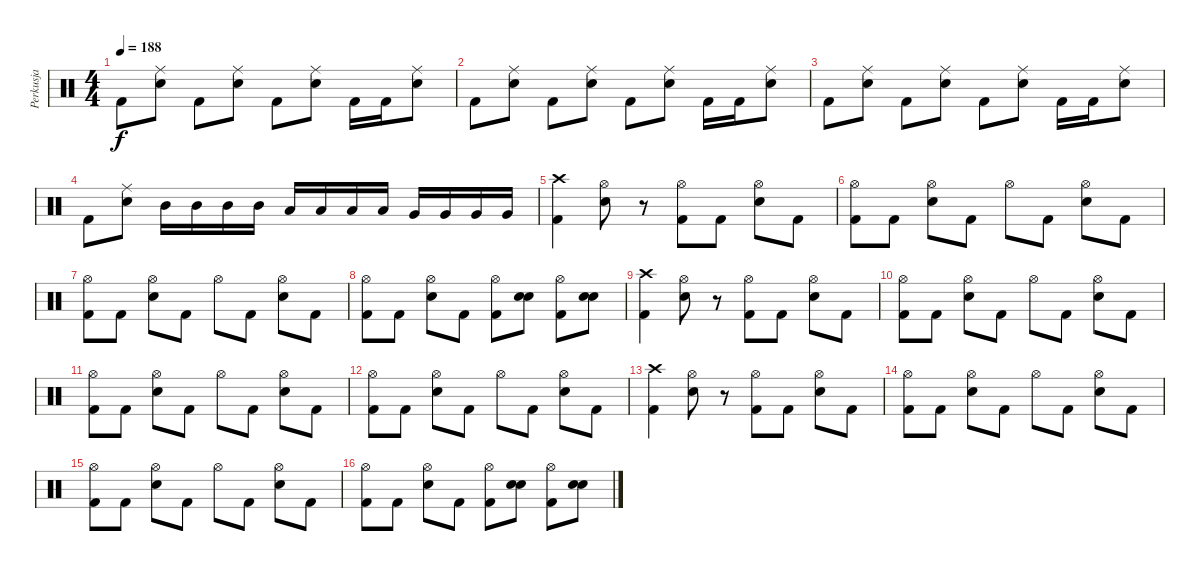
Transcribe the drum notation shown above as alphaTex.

\track ("Perkusja" "Perkusja") {instrument percussion}
\staff {score}
\articulation defaults
\ts (4 4)
\tempo 188
\clef neutral
\ks c "Kick (hit) 2".8{dy f}
("Ride (middle)" "Electric Snare (hit)").8 "Kick (hit) 2".8 ("Ride (middle)" "Electric Snare (hit)").8 "Kick (hit) 2".8 ("Ride (middle)" "Electric Snare (hit)").8 "Kick (hit) 2".16 "Kick (hit) 2".16 ("Ride (middle)" "Electric Snare (hit)").8 |
"Kick (hit) 2".8 ("Ride (middle)" "Electric Snare (hit)").8 "Kick (hit) 2".8 ("Ride (middle)" "Electric Snare (hit)").8 "Kick (hit) 2".8 ("Ride (middle)" "Electric Snare (hit)").8 "Kick (hit) 2".16 "Kick (hit) 2".16 ("Ride (middle)" "Electric Snare (hit)").8 |
"Kick (hit) 2".8 ("Ride (middle)" "Electric Snare (hit)").8 "Kick (hit) 2".8 ("Ride (middle)" "Electric Snare (hit)").8 "Kick (hit) 2".8 ("Ride (middle)" "Electric Snare (hit)").8 "Kick (hit) 2".16 "Kick (hit) 2".16 ("Ride (middle)" "Electric Snare (hit)").8 |
"Kick (hit) 2".8 ("Ride (middle)" "Electric Snare (hit)").8 "Mid Tom (hit)".16 "Mid Tom (hit)".16 "Mid Tom (hit)".16 "Mid Tom (hit)".16 "Low Tom (hit)".16 "Low Tom (hit)".16 "Low Tom (hit)".16 "Low Tom (hit)".16 "Very Low Tom (hit)".16 "Very Low Tom (hit)".16 "Very Low Tom (hit)".16 "Very Low Tom (hit)".16 |
("Crash high (hit)" "Kick (hit) 2").4 ("Hi-Hat (open)" "Electric Snare (hit)").8 r.8 ("Hi-Hat (open)" "Kick (hit) 2").8 "Kick (hit) 2".8 ("Hi-Hat (open)" "Electric Snare (hit)").8 "Kick (hit) 2".8 |
("Hi-Hat (open)" "Kick (hit) 2").8 "Kick (hit) 2".8 ("Hi-Hat (open)" "Electric Snare (hit)").8 "Kick (hit) 2".8 "Hi-Hat (open)".8 "Kick (hit) 2".8 ("Hi-Hat (open)" "Electric Snare (hit)").8 "Kick (hit) 2".8 |
("Hi-Hat (open)" "Kick (hit) 2").8 "Kick (hit) 2".8 ("Hi-Hat (open)" "Electric Snare (hit)").8 "Kick (hit) 2".8 "Hi-Hat (open)".8 "Kick (hit) 2".8 ("Hi-Hat (open)" "Electric Snare (hit)").8 "Kick (hit) 2".8 |
("Hi-Hat (open)" "Kick (hit) 2").8 "Kick (hit) 2".8 ("Hi-Hat (open)" "Electric Snare (hit)").8 "Kick (hit) 2".8 ("Hi-Hat (open)" "Kick (hit) 2").8 ("Electric Snare (hit)" "Electric Snare (hit)").8 ("Hi-Hat (open)" "Kick (hit) 2").8 ("Electric Snare (hit)" "Electric Snare (hit)").8 |
("Crash high (hit)" "Kick (hit) 2").4 ("Hi-Hat (open)" "Electric Snare (hit)").8 r.8 ("Hi-Hat (open)" "Kick (hit) 2").8 "Kick (hit) 2".8 ("Hi-Hat (open)" "Electric Snare (hit)").8 "Kick (hit) 2".8 |
("Hi-Hat (open)" "Kick (hit) 2").8 "Kick (hit) 2".8 ("Hi-Hat (open)" "Electric Snare (hit)").8 "Kick (hit) 2".8 "Hi-Hat (open)".8 "Kick (hit) 2".8 ("Hi-Hat (open)" "Electric Snare (hit)").8 "Kick (hit) 2".8 |
("Hi-Hat (open)" "Kick (hit) 2").8 "Kick (hit) 2".8 ("Hi-Hat (open)" "Electric Snare (hit)").8 "Kick (hit) 2".8 "Hi-Hat (open)".8 "Kick (hit) 2".8 ("Hi-Hat (open)" "Electric Snare (hit)").8 "Kick (hit) 2".8 |
("Hi-Hat (open)" "Kick (hit) 2").8 "Kick (hit) 2".8 ("Hi-Hat (open)" "Electric Snare (hit)").8 "Kick (hit) 2".8 "Hi-Hat (open)".8 "Kick (hit) 2".8 ("Hi-Hat (open)" "Electric Snare (hit)").8 "Kick (hit) 2".8 |
("Crash high (hit)" "Kick (hit) 2").4 ("Hi-Hat (open)" "Electric Snare (hit)").8 r.8 ("Hi-Hat (open)" "Kick (hit) 2").8 "Kick (hit) 2".8 ("Hi-Hat (open)" "Electric Snare (hit)").8 "Kick (hit) 2".8 |
("Hi-Hat (open)" "Kick (hit) 2").8 "Kick (hit) 2".8 ("Hi-Hat (open)" "Electric Snare (hit)").8 "Kick (hit) 2".8 "Hi-Hat (open)".8 "Kick (hit) 2".8 ("Hi-Hat (open)" "Electric Snare (hit)").8 "Kick (hit) 2".8 |
("Hi-Hat (open)" "Kick (hit) 2").8 "Kick (hit) 2".8 ("Hi-Hat (open)" "Electric Snare (hit)").8 "Kick (hit) 2".8 "Hi-Hat (open)".8 "Kick (hit) 2".8 ("Hi-Hat (open)" "Electric Snare (hit)").8 "Kick (hit) 2".8 |
("Hi-Hat (open)" "Kick (hit) 2").8 "Kick (hit) 2".8 ("Hi-Hat (open)" "Electric Snare (hit)").8 "Kick (hit) 2".8 ("Hi-Hat (open)" "Kick (hit) 2").8 ("Electric Snare (hit)" "Electric Snare (hit)").8 ("Hi-Hat (open)" "Kick (hit) 2").8 ("Electric Snare (hit)" "Electric Snare (hit)").8
